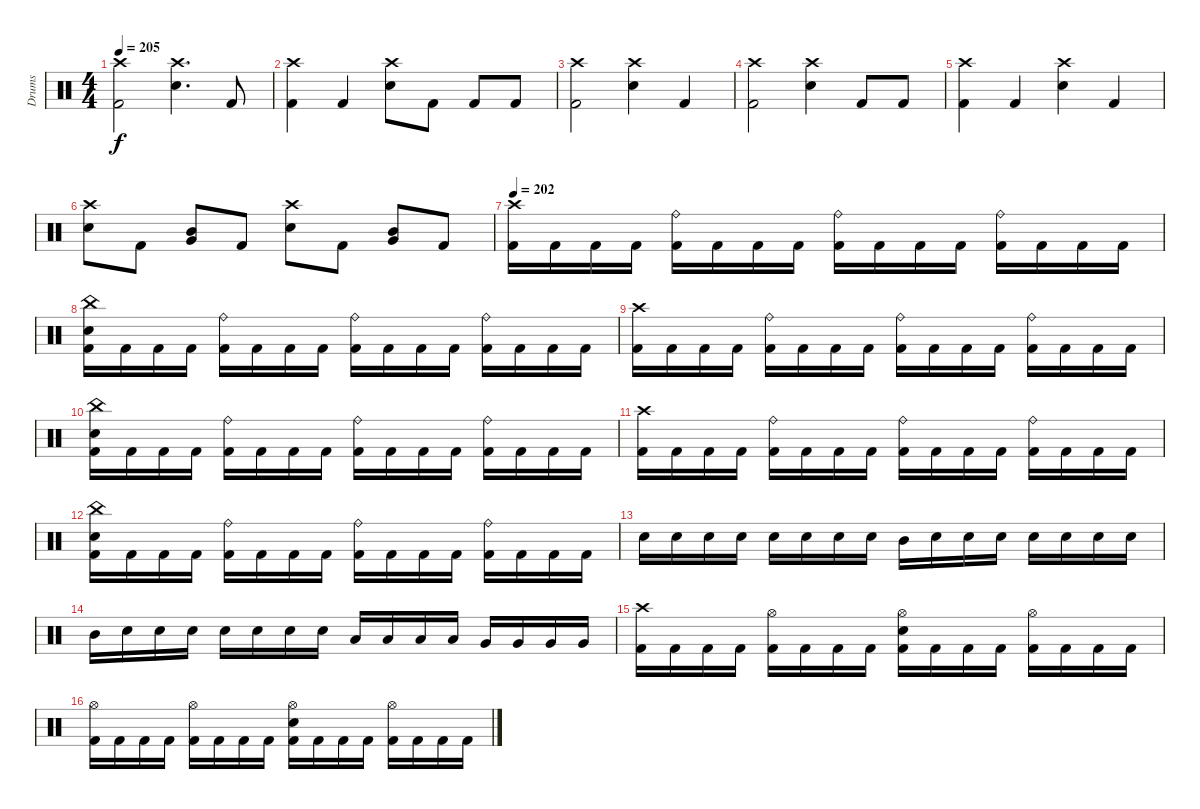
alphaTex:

\track ("Drums" "Drums") {instrument percussion bank 169}
\staff {score}
\articulation defaults
\ts (4 4)
\tempo 205
\clef neutral
\ks c
("Crash high (hit)" "Kick (hit) 2").2{dy f} ("Crash high (hit)" "Snare (hit) 2").4{d} "Kick (hit) 2".8 |
("Crash high (hit)" "Kick (hit) 2").4 "Kick (hit) 2".4 ("Crash high (hit)" "Snare (hit) 2").8 "Kick (hit) 2".8 "Kick (hit) 2".8 "Kick (hit) 2".8 |
("Crash high (hit)" "Kick (hit) 2").2 ("Crash high (hit)" "Snare (hit) 2").4 "Kick (hit) 2".4 |
("Crash high (hit)" "Kick (hit) 2").2 ("Crash high (hit)" "Snare (hit) 2").4 "Kick (hit) 2".8 "Kick (hit) 2".8 |
("Crash high (hit)" "Kick (hit) 2").4 "Kick (hit) 2".4 ("Crash high (hit)" "Snare (hit) 2").4 "Kick (hit) 2".4 |
("Crash high (hit)" "Snare (hit) 2").8 "Kick (hit) 2".8 ("Mid Tom (hit)" "Very Low Tom (hit)").8 "Kick (hit) 2".8 ("Crash high (hit)" "Snare (hit) 2").8 "Kick (hit) 2".8 ("Mid Tom (hit)" "Very Low Tom (hit)").8 "Kick (hit) 2".8 |
\tempo 202
("Crash high (hit)" "Kick (hit) 2").16 "Kick (hit) 2".16 "Kick (hit) 2".16 "Kick (hit) 2".16 ("Ride (bell)" "Kick (hit) 2").16 "Kick (hit) 2".16 "Kick (hit) 2".16 "Kick (hit) 2".16 ("Ride (bell)" "Kick (hit) 2").16 "Kick (hit) 2".16 "Kick (hit) 2".16 "Kick (hit) 2".16 ("Ride (bell)" "Kick (hit) 2").16 "Kick (hit) 2".16 "Kick (hit) 2".16 "Kick (hit) 2".16 |
("China (hit)" "Snare (hit) 2" "Kick (hit) 2").16 "Kick (hit) 2".16 "Kick (hit) 2".16 "Kick (hit) 2".16 ("Ride (bell)" "Kick (hit) 2").16 "Kick (hit) 2".16 "Kick (hit) 2".16 "Kick (hit) 2".16 ("Ride (bell)" "Kick (hit) 2").16 "Kick (hit) 2".16 "Kick (hit) 2".16 "Kick (hit) 2".16 ("Ride (bell)" "Kick (hit) 2").16 "Kick (hit) 2".16 "Kick (hit) 2".16 "Kick (hit) 2".16 |
("Crash high (hit)" "Kick (hit) 2").16 "Kick (hit) 2".16 "Kick (hit) 2".16 "Kick (hit) 2".16 ("Ride (bell)" "Kick (hit) 2").16 "Kick (hit) 2".16 "Kick (hit) 2".16 "Kick (hit) 2".16 ("Ride (bell)" "Kick (hit) 2").16 "Kick (hit) 2".16 "Kick (hit) 2".16 "Kick (hit) 2".16 ("Ride (bell)" "Kick (hit) 2").16 "Kick (hit) 2".16 "Kick (hit) 2".16 "Kick (hit) 2".16 |
("China (hit)" "Snare (hit) 2" "Kick (hit) 2").16 "Kick (hit) 2".16 "Kick (hit) 2".16 "Kick (hit) 2".16 ("Ride (bell)" "Kick (hit) 2").16 "Kick (hit) 2".16 "Kick (hit) 2".16 "Kick (hit) 2".16 ("Ride (bell)" "Kick (hit) 2").16 "Kick (hit) 2".16 "Kick (hit) 2".16 "Kick (hit) 2".16 ("Ride (bell)" "Kick (hit) 2").16 "Kick (hit) 2".16 "Kick (hit) 2".16 "Kick (hit) 2".16 |
("Crash high (hit)" "Kick (hit) 2").16 "Kick (hit) 2".16 "Kick (hit) 2".16 "Kick (hit) 2".16 ("Ride (bell)" "Kick (hit) 2").16 "Kick (hit) 2".16 "Kick (hit) 2".16 "Kick (hit) 2".16 ("Ride (bell)" "Kick (hit) 2").16 "Kick (hit) 2".16 "Kick (hit) 2".16 "Kick (hit) 2".16 ("Ride (bell)" "Kick (hit) 2").16 "Kick (hit) 2".16 "Kick (hit) 2".16 "Kick (hit) 2".16 |
("China (hit)" "Snare (hit) 2" "Kick (hit) 2").16 "Kick (hit) 2".16 "Kick (hit) 2".16 "Kick (hit) 2".16 ("Ride (bell)" "Kick (hit) 2").16 "Kick (hit) 2".16 "Kick (hit) 2".16 "Kick (hit) 2".16 ("Ride (bell)" "Kick (hit) 2").16 "Kick (hit) 2".16 "Kick (hit) 2".16 "Kick (hit) 2".16 ("Ride (bell)" "Kick (hit) 2").16 "Kick (hit) 2".16 "Kick (hit) 2".16 "Kick (hit) 2".16 |
"Snare (hit) 2".16 "Snare (hit) 2".16 "Snare (hit) 2".16 "Snare (hit) 2".16 "Snare (hit) 2".16 "Snare (hit) 2".16 "Snare (hit) 2".16 "Snare (hit) 2".16 "Mid Tom (hit)".16 "Snare (hit) 2".16 "Snare (hit) 2".16 "Snare (hit) 2".16 "Snare (hit) 2".16 "Snare (hit) 2".16 "Snare (hit) 2".16 "Snare (hit) 2".16 |
"Mid Tom (hit)".16 "Snare (hit) 2".16 "Snare (hit) 2".16 "Snare (hit) 2".16 "Snare (hit) 2".16 "Snare (hit) 2".16 "Snare (hit) 2".16 "Snare (hit) 2".16 "Low Tom (hit)".16 "Low Tom (hit)".16 "Low Tom (hit)".16 "Low Tom (hit)".16 "Very Low Tom (hit)".16 "Very Low Tom (hit)".16 "Very Low Tom (hit)".16 "Very Low Tom (hit)".16 |
("Crash high (hit)" "Kick (hit) 2").16 "Kick (hit) 2".16 "Kick (hit) 2".16 "Kick (hit) 2".16 ("Hi-Hat (open)" "Kick (hit) 2").16 "Kick (hit) 2".16 "Kick (hit) 2".16 "Kick (hit) 2".16 ("Hi-Hat (open)" "Snare (hit) 2" "Kick (hit) 2").16 "Kick (hit) 2".16 "Kick (hit) 2".16 "Kick (hit) 2".16 ("Hi-Hat (open)" "Kick (hit) 2").16 "Kick (hit) 2".16 "Kick (hit) 2".16 "Kick (hit) 2".16 |
("Hi-Hat (open)" "Kick (hit) 2").16 "Kick (hit) 2".16 "Kick (hit) 2".16 "Kick (hit) 2".16 ("Hi-Hat (open)" "Kick (hit) 2").16 "Kick (hit) 2".16 "Kick (hit) 2".16 "Kick (hit) 2".16 ("Hi-Hat (open)" "Snare (hit) 2" "Kick (hit) 2").16 "Kick (hit) 2".16 "Kick (hit) 2".16 "Kick (hit) 2".16 ("Hi-Hat (open)" "Kick (hit) 2").16 "Kick (hit) 2".16 "Kick (hit) 2".16 "Kick (hit) 2".16
